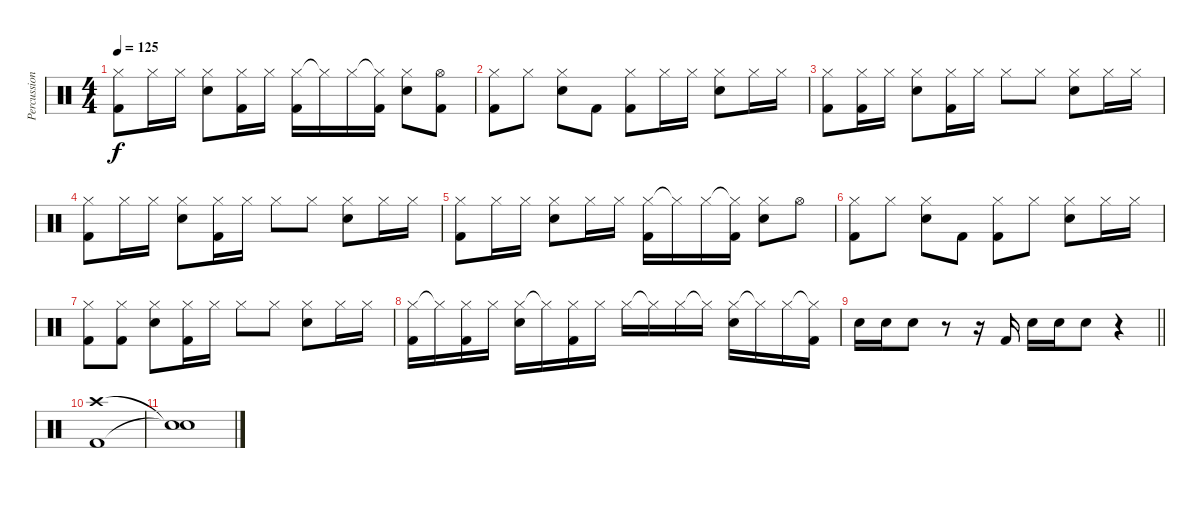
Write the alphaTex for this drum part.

\track ("Percussion" "Percussion") {instrument percussion}
\staff {score}
\articulation defaults
\ts (4 4)
\tempo 125
\clef neutral
\ks c
("Hi-Hat (closed)" "Kick (hit) 2").8{dy f} "Hi-Hat (closed)".16 "Hi-Hat (closed)".16 ("Hi-Hat (closed)" "Electric Snare (hit)").8 ("Hi-Hat (closed)" "Kick (hit) 2").16 "Hi-Hat (closed)".16 ("Hi-Hat (closed)" "Kick (hit) 2").16 "Hi-Hat (closed)"{t}.16 "Hi-Hat (closed)".16 ("Hi-Hat (closed)"{t} "Kick (hit) 2").16 ("Hi-Hat (closed)" "Electric Snare (hit)").8 ("Hi-Hat (open)" "Kick (hit) 2").8 |
("Hi-Hat (closed)" "Kick (hit) 2").8 "Hi-Hat (closed)".8 ("Hi-Hat (closed)" "Electric Snare (hit)").8 "Kick (hit) 2".8 ("Hi-Hat (closed)" "Kick (hit) 2").8 "Hi-Hat (closed)".16 "Hi-Hat (closed)".16 ("Hi-Hat (closed)" "Electric Snare (hit)").8 "Hi-Hat (closed)".16 "Hi-Hat (closed)".16 |
("Hi-Hat (closed)" "Kick (hit) 2").8 ("Hi-Hat (closed)" "Kick (hit) 2").16 "Hi-Hat (closed)".16 ("Hi-Hat (closed)" "Electric Snare (hit)").8 ("Hi-Hat (closed)" "Kick (hit) 2").16 "Hi-Hat (closed)".16 "Hi-Hat (closed)".8 "Hi-Hat (closed)".8 ("Hi-Hat (closed)" "Electric Snare (hit)").8 "Hi-Hat (closed)".16 "Hi-Hat (closed)".16 |
("Hi-Hat (closed)" "Kick (hit) 2").8 "Hi-Hat (closed)".16 "Hi-Hat (closed)".16 ("Hi-Hat (closed)" "Electric Snare (hit)").8 ("Hi-Hat (closed)" "Kick (hit) 2").16 "Hi-Hat (closed)".16 "Hi-Hat (closed)".8 "Hi-Hat (closed)".8 ("Hi-Hat (closed)" "Electric Snare (hit)").8 "Hi-Hat (closed)".16 "Hi-Hat (closed)".16 |
("Hi-Hat (closed)" "Kick (hit) 2").8 "Hi-Hat (closed)".16 "Hi-Hat (closed)".16 ("Hi-Hat (closed)" "Electric Snare (hit)").8 "Hi-Hat (closed)".16 "Hi-Hat (closed)".16 ("Hi-Hat (closed)" "Kick (hit) 2").16 "Hi-Hat (closed)"{t}.16 "Hi-Hat (closed)".16 ("Hi-Hat (closed)"{t} "Kick (hit) 2").16 ("Hi-Hat (closed)" "Electric Snare (hit)").8 "Hi-Hat (open)".8 |
("Hi-Hat (closed)" "Kick (hit) 2").8 "Hi-Hat (closed)".8 ("Hi-Hat (closed)" "Electric Snare (hit)").8 "Kick (hit) 2".8 ("Hi-Hat (closed)" "Kick (hit) 2").8 "Hi-Hat (closed)".8 ("Hi-Hat (closed)" "Electric Snare (hit)").8 "Hi-Hat (closed)".16 "Hi-Hat (closed)".16 |
("Hi-Hat (closed)" "Kick (hit) 2").8 ("Hi-Hat (closed)" "Kick (hit) 2").8 ("Hi-Hat (closed)" "Electric Snare (hit)").8 ("Hi-Hat (closed)" "Kick (hit) 2").16 "Hi-Hat (closed)".16 "Hi-Hat (closed)".8 "Hi-Hat (closed)".8 ("Hi-Hat (closed)" "Electric Snare (hit)").8 "Hi-Hat (closed)".16 "Hi-Hat (closed)".16 |
("Hi-Hat (closed)" "Kick (hit) 2").16 "Hi-Hat (closed)"{t}.16 ("Hi-Hat (closed)" "Kick (hit) 2").16 "Hi-Hat (closed)".16 ("Hi-Hat (closed)" "Electric Snare (hit)").16 "Hi-Hat (closed)"{t}.16 ("Hi-Hat (closed)" "Kick (hit) 2").16 "Hi-Hat (closed)".16 "Hi-Hat (closed)".16 "Hi-Hat (closed)"{t}.16 "Hi-Hat (closed)".16 "Hi-Hat (closed)"{t}.16 ("Hi-Hat (closed)" "Electric Snare (hit)").16 "Hi-Hat (closed)"{t}.16 "Hi-Hat (closed)".16 ("Hi-Hat (closed)"{t} "Kick (hit) 2").16 |
\barLineRight lightlight "Electric Snare (hit)".16 "Electric Snare (hit)".16 "Electric Snare (hit)".8
r.8 r.16 "Kick (hit) 2".16 "Electric Snare (hit)".16 "Electric Snare (hit)".16 "Electric Snare (hit)".8 r.4 |
("Crash high (hit)" "Kick (hit) 2").1 |
("Snare (hit)"{t} "Snare (hit)"{t}).1
